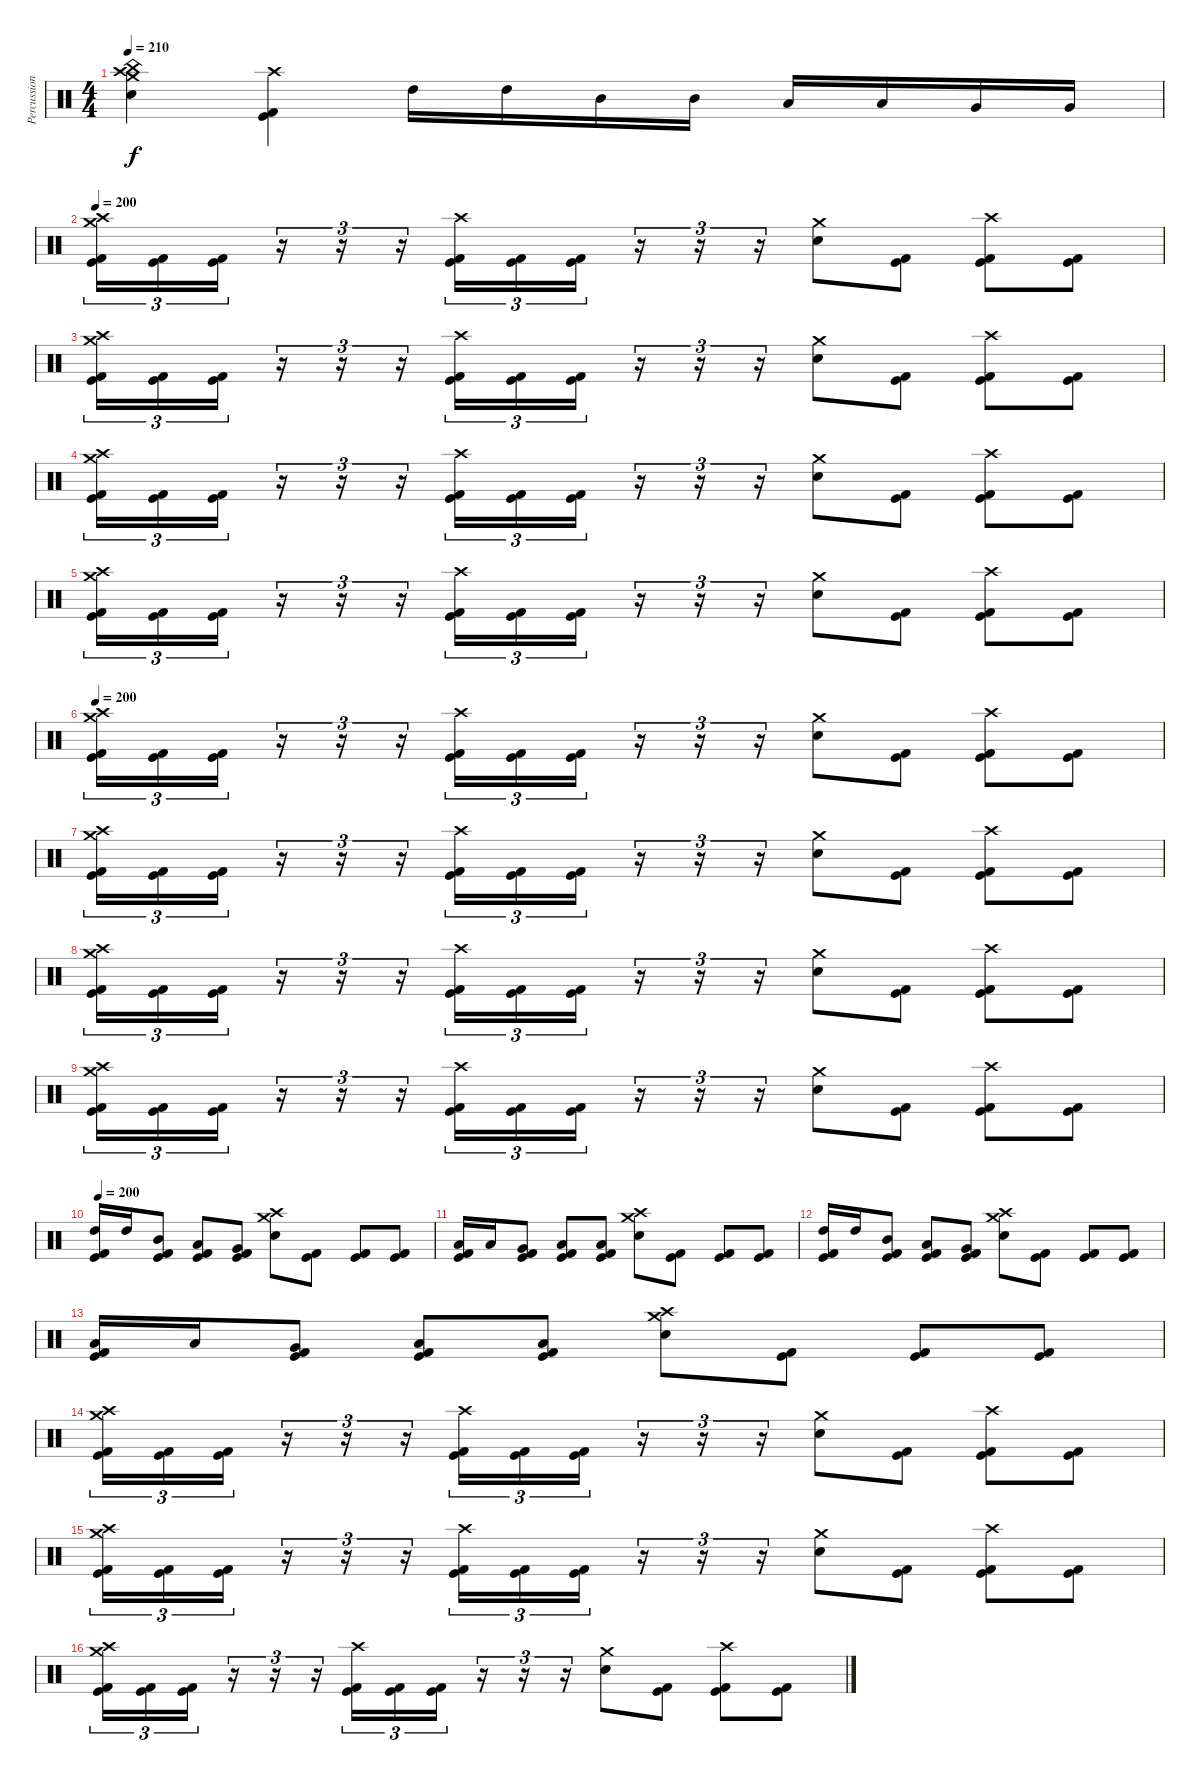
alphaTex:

\track ("Percussion" "Percussion") {instrument percussion}
\staff {score}
\articulation defaults
\ts (4 4)
\tempo 210
\clef neutral
\ks c
("Crash medium (hit)" "Crash high (hit)" "China (hit)" "Electric Snare (hit)").4{dy f} ("Crash high (hit)" "Kick (hit)" "Kick (hit) 2").4 "High Tom (hit)".16 "High Tom (hit)".16 "Mid Tom (hit)".16 "Mid Tom (hit)".16 "Low Tom (hit)".16 "Low Tom (hit)".16 "Very Low Tom (hit)".16 "Very Low Tom (hit)".16 |
\tempo 200
("Crash medium (hit)" "Crash high (hit)" "Kick (hit)" "Kick (hit) 2").16{tu (3 2)} ("Kick (hit)" "Kick (hit) 2").16{tu (3 2)} ("Kick (hit)" "Kick (hit) 2").16{tu (3 2)} r.16{tu (3 2)} r.16{tu (3 2)} r.16{tu (3 2)} ("Crash high (hit)" "Kick (hit)" "Kick (hit) 2").16{tu (3 2)} ("Kick (hit)" "Kick (hit) 2").16{tu (3 2)} ("Kick (hit)" "Kick (hit) 2").16{tu (3 2)} r.16{tu (3 2)} r.16{tu (3 2)} r.16{tu (3 2)} ("Crash medium (hit)" "Electric Snare (hit)").8 ("Kick (hit)" "Kick (hit) 2").8 ("Crash high (hit)" "Kick (hit)" "Kick (hit) 2").8 ("Kick (hit)" "Kick (hit) 2").8 |
("Crash medium (hit)" "Crash high (hit)" "Kick (hit)" "Kick (hit) 2").16{tu (3 2)} ("Kick (hit)" "Kick (hit) 2").16{tu (3 2)} ("Kick (hit)" "Kick (hit) 2").16{tu (3 2)} r.16{tu (3 2)} r.16{tu (3 2)} r.16{tu (3 2)} ("Crash high (hit)" "Kick (hit)" "Kick (hit) 2").16{tu (3 2)} ("Kick (hit)" "Kick (hit) 2").16{tu (3 2)} ("Kick (hit)" "Kick (hit) 2").16{tu (3 2)} r.16{tu (3 2)} r.16{tu (3 2)} r.16{tu (3 2)} ("Crash medium (hit)" "Electric Snare (hit)").8 ("Kick (hit)" "Kick (hit) 2").8 ("Crash high (hit)" "Kick (hit)" "Kick (hit) 2").8 ("Kick (hit)" "Kick (hit) 2").8 |
("Crash medium (hit)" "Crash high (hit)" "Kick (hit)" "Kick (hit) 2").16{tu (3 2)} ("Kick (hit)" "Kick (hit) 2").16{tu (3 2)} ("Kick (hit)" "Kick (hit) 2").16{tu (3 2)} r.16{tu (3 2)} r.16{tu (3 2)} r.16{tu (3 2)} ("Crash high (hit)" "Kick (hit)" "Kick (hit) 2").16{tu (3 2)} ("Kick (hit)" "Kick (hit) 2").16{tu (3 2)} ("Kick (hit)" "Kick (hit) 2").16{tu (3 2)} r.16{tu (3 2)} r.16{tu (3 2)} r.16{tu (3 2)} ("Crash medium (hit)" "Electric Snare (hit)").8 ("Kick (hit)" "Kick (hit) 2").8 ("Crash high (hit)" "Kick (hit)" "Kick (hit) 2").8 ("Kick (hit)" "Kick (hit) 2").8 |
("Crash medium (hit)" "Crash high (hit)" "Kick (hit)" "Kick (hit) 2").16{tu (3 2)} ("Kick (hit)" "Kick (hit) 2").16{tu (3 2)} ("Kick (hit)" "Kick (hit) 2").16{tu (3 2)} r.16{tu (3 2)} r.16{tu (3 2)} r.16{tu (3 2)} ("Crash high (hit)" "Kick (hit)" "Kick (hit) 2").16{tu (3 2)} ("Kick (hit)" "Kick (hit) 2").16{tu (3 2)} ("Kick (hit)" "Kick (hit) 2").16{tu (3 2)} r.16{tu (3 2)} r.16{tu (3 2)} r.16{tu (3 2)} ("Crash medium (hit)" "Electric Snare (hit)").8 ("Kick (hit)" "Kick (hit) 2").8 ("Crash high (hit)" "Kick (hit)" "Kick (hit) 2").8 ("Kick (hit)" "Kick (hit) 2").8 |
\tempo 200
("Crash medium (hit)" "Crash high (hit)" "Kick (hit)" "Kick (hit) 2").16{tu (3 2)} ("Kick (hit)" "Kick (hit) 2").16{tu (3 2)} ("Kick (hit)" "Kick (hit) 2").16{tu (3 2)} r.16{tu (3 2)} r.16{tu (3 2)} r.16{tu (3 2)} ("Crash high (hit)" "Kick (hit)" "Kick (hit) 2").16{tu (3 2)} ("Kick (hit)" "Kick (hit) 2").16{tu (3 2)} ("Kick (hit)" "Kick (hit) 2").16{tu (3 2)} r.16{tu (3 2)} r.16{tu (3 2)} r.16{tu (3 2)} ("Crash medium (hit)" "Electric Snare (hit)").8 ("Kick (hit)" "Kick (hit) 2").8 ("Crash high (hit)" "Kick (hit)" "Kick (hit) 2").8 ("Kick (hit)" "Kick (hit) 2").8 |
("Crash medium (hit)" "Crash high (hit)" "Kick (hit)" "Kick (hit) 2").16{tu (3 2)} ("Kick (hit)" "Kick (hit) 2").16{tu (3 2)} ("Kick (hit)" "Kick (hit) 2").16{tu (3 2)} r.16{tu (3 2)} r.16{tu (3 2)} r.16{tu (3 2)} ("Crash high (hit)" "Kick (hit)" "Kick (hit) 2").16{tu (3 2)} ("Kick (hit)" "Kick (hit) 2").16{tu (3 2)} ("Kick (hit)" "Kick (hit) 2").16{tu (3 2)} r.16{tu (3 2)} r.16{tu (3 2)} r.16{tu (3 2)} ("Crash medium (hit)" "Electric Snare (hit)").8 ("Kick (hit)" "Kick (hit) 2").8 ("Crash high (hit)" "Kick (hit)" "Kick (hit) 2").8 ("Kick (hit)" "Kick (hit) 2").8 |
("Crash medium (hit)" "Crash high (hit)" "Kick (hit)" "Kick (hit) 2").16{tu (3 2)} ("Kick (hit)" "Kick (hit) 2").16{tu (3 2)} ("Kick (hit)" "Kick (hit) 2").16{tu (3 2)} r.16{tu (3 2)} r.16{tu (3 2)} r.16{tu (3 2)} ("Crash high (hit)" "Kick (hit)" "Kick (hit) 2").16{tu (3 2)} ("Kick (hit)" "Kick (hit) 2").16{tu (3 2)} ("Kick (hit)" "Kick (hit) 2").16{tu (3 2)} r.16{tu (3 2)} r.16{tu (3 2)} r.16{tu (3 2)} ("Crash medium (hit)" "Electric Snare (hit)").8 ("Kick (hit)" "Kick (hit) 2").8 ("Crash high (hit)" "Kick (hit)" "Kick (hit) 2").8 ("Kick (hit)" "Kick (hit) 2").8 |
("Crash medium (hit)" "Crash high (hit)" "Kick (hit)" "Kick (hit) 2").16{tu (3 2)} ("Kick (hit)" "Kick (hit) 2").16{tu (3 2)} ("Kick (hit)" "Kick (hit) 2").16{tu (3 2)} r.16{tu (3 2)} r.16{tu (3 2)} r.16{tu (3 2)} ("Crash high (hit)" "Kick (hit)" "Kick (hit) 2").16{tu (3 2)} ("Kick (hit)" "Kick (hit) 2").16{tu (3 2)} ("Kick (hit)" "Kick (hit) 2").16{tu (3 2)} r.16{tu (3 2)} r.16{tu (3 2)} r.16{tu (3 2)} ("Crash medium (hit)" "Electric Snare (hit)").8 ("Kick (hit)" "Kick (hit) 2").8 ("Crash high (hit)" "Kick (hit)" "Kick (hit) 2").8 ("Kick (hit)" "Kick (hit) 2").8 |
\tempo 200
("High Tom (hit)" "Kick (hit)" "Kick (hit) 2").16 "High Tom (hit)".16 ("Mid Tom (hit)" "Kick (hit)" "Kick (hit) 2").8 ("Low Tom (hit)" "Kick (hit)" "Kick (hit) 2").8 ("Very Low Tom (hit)" "Kick (hit)" "Kick (hit) 2").8 ("Crash medium (hit)" "Crash high (hit)" "Electric Snare (hit)").8 ("Kick (hit)" "Kick (hit) 2").8 ("Kick (hit)" "Kick (hit) 2").8 ("Kick (hit)" "Kick (hit) 2").8 |
("Low Tom (hit)" "Kick (hit)" "Kick (hit) 2").16 "Low Tom (hit)".16 ("Very Low Tom (hit)" "Kick (hit)" "Kick (hit) 2").8 ("Low Floor Tom (hit)" "Kick (hit)" "Kick (hit) 2").8 ("Low Floor Tom (hit)" "Kick (hit)" "Kick (hit) 2").8 ("Crash medium (hit)" "Crash high (hit)" "Electric Snare (hit)").8 ("Kick (hit)" "Kick (hit) 2").8 ("Kick (hit)" "Kick (hit) 2").8 ("Kick (hit)" "Kick (hit) 2").8 |
("High Tom (hit)" "Kick (hit)" "Kick (hit) 2").16 "High Tom (hit)".16 ("Mid Tom (hit)" "Kick (hit)" "Kick (hit) 2").8 ("Low Tom (hit)" "Kick (hit)" "Kick (hit) 2").8 ("Very Low Tom (hit)" "Kick (hit)" "Kick (hit) 2").8 ("Crash medium (hit)" "Crash high (hit)" "Electric Snare (hit)").8 ("Kick (hit)" "Kick (hit) 2").8 ("Kick (hit)" "Kick (hit) 2").8 ("Kick (hit)" "Kick (hit) 2").8 |
("Low Tom (hit)" "Kick (hit)" "Kick (hit) 2").16 "Low Tom (hit)".16 ("Very Low Tom (hit)" "Kick (hit)" "Kick (hit) 2").8 ("Low Floor Tom (hit)" "Kick (hit)" "Kick (hit) 2").8 ("Low Floor Tom (hit)" "Kick (hit)" "Kick (hit) 2").8 ("Crash medium (hit)" "Crash high (hit)" "Electric Snare (hit)").8 ("Kick (hit)" "Kick (hit) 2").8 ("Kick (hit)" "Kick (hit) 2").8 ("Kick (hit)" "Kick (hit) 2").8 |
("Crash medium (hit)" "Crash high (hit)" "Kick (hit)" "Kick (hit) 2").16{tu (3 2)} ("Kick (hit)" "Kick (hit) 2").16{tu (3 2)} ("Kick (hit)" "Kick (hit) 2").16{tu (3 2)} r.16{tu (3 2)} r.16{tu (3 2)} r.16{tu (3 2)} ("Crash high (hit)" "Kick (hit)" "Kick (hit) 2").16{tu (3 2)} ("Kick (hit)" "Kick (hit) 2").16{tu (3 2)} ("Kick (hit)" "Kick (hit) 2").16{tu (3 2)} r.16{tu (3 2)} r.16{tu (3 2)} r.16{tu (3 2)} ("Crash medium (hit)" "Electric Snare (hit)").8 ("Kick (hit)" "Kick (hit) 2").8 ("Crash high (hit)" "Kick (hit)" "Kick (hit) 2").8 ("Kick (hit)" "Kick (hit) 2").8 |
("Crash medium (hit)" "Crash high (hit)" "Kick (hit)" "Kick (hit) 2").16{tu (3 2)} ("Kick (hit)" "Kick (hit) 2").16{tu (3 2)} ("Kick (hit)" "Kick (hit) 2").16{tu (3 2)} r.16{tu (3 2)} r.16{tu (3 2)} r.16{tu (3 2)} ("Crash high (hit)" "Kick (hit)" "Kick (hit) 2").16{tu (3 2)} ("Kick (hit)" "Kick (hit) 2").16{tu (3 2)} ("Kick (hit)" "Kick (hit) 2").16{tu (3 2)} r.16{tu (3 2)} r.16{tu (3 2)} r.16{tu (3 2)} ("Crash medium (hit)" "Electric Snare (hit)").8 ("Kick (hit)" "Kick (hit) 2").8 ("Crash high (hit)" "Kick (hit)" "Kick (hit) 2").8 ("Kick (hit)" "Kick (hit) 2").8 |
("Crash medium (hit)" "Crash high (hit)" "Kick (hit)" "Kick (hit) 2").16{tu (3 2)} ("Kick (hit)" "Kick (hit) 2").16{tu (3 2)} ("Kick (hit)" "Kick (hit) 2").16{tu (3 2)} r.16{tu (3 2)} r.16{tu (3 2)} r.16{tu (3 2)} ("Crash high (hit)" "Kick (hit)" "Kick (hit) 2").16{tu (3 2)} ("Kick (hit)" "Kick (hit) 2").16{tu (3 2)} ("Kick (hit)" "Kick (hit) 2").16{tu (3 2)} r.16{tu (3 2)} r.16{tu (3 2)} r.16{tu (3 2)} ("Crash medium (hit)" "Electric Snare (hit)").8 ("Kick (hit)" "Kick (hit) 2").8 ("Crash high (hit)" "Kick (hit)" "Kick (hit) 2").8 ("Kick (hit)" "Kick (hit) 2").8
